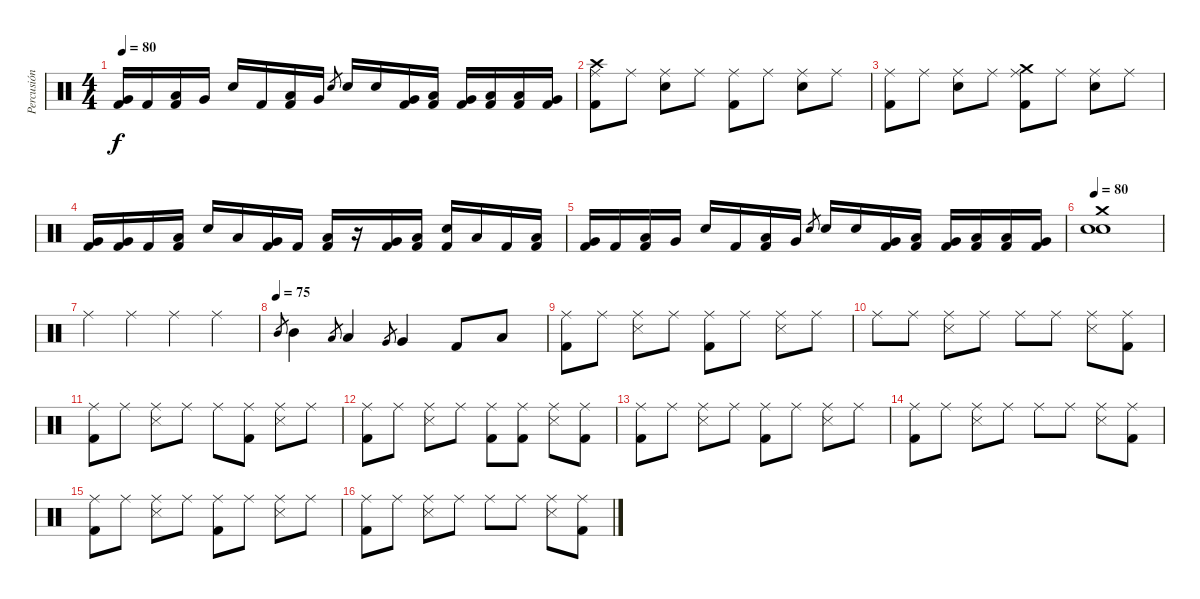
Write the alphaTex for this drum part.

\track ("Percusión" "Percusión") {instrument percussion}
\staff {score}
\articulation defaults
\ts (4 4)
\tempo 80
\clef neutral
\ks c
("Kick (hit) 2" "Very Low Tom (hit)").16{dy f} "Kick (hit) 2".16 ("Kick (hit) 2" "Low Floor Tom (hit)").16 "Very Low Tom (hit)".16 "Electric Snare (hit)".16 "Kick (hit) 2".16 ("Kick (hit) 2" "Low Floor Tom (hit)").16 "Very Low Tom (hit)".16 "Electric Snare (hit)".8{gr} "Electric Snare (hit)".16 "Electric Snare (hit)".16 ("Very Low Tom (hit)" "Kick (hit) 2").16 ("Low Floor Tom (hit)" "Kick (hit) 2").16 ("Very Low Tom (hit)" "Kick (hit) 2").16 ("Low Floor Tom (hit)" "Kick (hit) 2").16 ("Low Floor Tom (hit)" "Kick (hit) 2").16 ("Very Low Tom (hit)" "Kick (hit) 2").16 |
("Kick (hit) 2" "Crash high (hit)" "Ride (middle)").8 "Ride (middle)".8 ("Electric Snare (hit)" "Ride (middle)").8 "Ride (middle)".8 ("Kick (hit) 2" "Ride (middle)").8 "Ride (middle)".8 ("Electric Snare (hit)" "Ride (middle)").8 "Ride (middle)".8 |
("Kick (hit) 2" "Ride (middle)").8 "Ride (middle)".8 ("Electric Snare (hit)" "Ride (middle)").8 "Ride (middle)".8 ("Kick (hit) 2" "Crash medium (hit)" "Ride (middle)").8 "Ride (middle)".8 ("Electric Snare (hit)" "Ride (middle)").8 "Ride (middle)".8 |
("Kick (hit) 2" "Very Low Tom (hit)").16 ("Kick (hit) 2" "Very Low Tom (hit)").16 "Kick (hit) 2".16 ("Kick (hit) 2" "Low Floor Tom (hit)").16 "Electric Snare (hit)".16 "Low Floor Tom (hit)".16 ("Kick (hit) 2" "Very Low Tom (hit)").16 "Kick (hit) 2".16 ("Kick (hit) 2" "Low Floor Tom (hit)").16 r.16 ("Kick (hit) 2" "Very Low Tom (hit)").16 ("Kick (hit) 2" "Low Floor Tom (hit)").16 ("Kick (hit) 2" "Electric Snare (hit)").16 "Low Floor Tom (hit)".16 "Kick (hit) 2".16 ("Kick (hit) 2" "Low Floor Tom (hit)").16 |
("Kick (hit) 2" "Very Low Tom (hit)").16 "Kick (hit) 2".16 ("Kick (hit) 2" "Low Floor Tom (hit)").16 "Very Low Tom (hit)".16 "Electric Snare (hit)".16 "Kick (hit) 2".16 ("Kick (hit) 2" "Low Floor Tom (hit)").16 "Very Low Tom (hit)".16 "Electric Snare (hit)".8{gr} "Electric Snare (hit)".16 "Electric Snare (hit)".16 ("Very Low Tom (hit)" "Kick (hit) 2").16 ("Low Floor Tom (hit)" "Kick (hit) 2").16 ("Very Low Tom (hit)" "Kick (hit) 2").16 ("Low Floor Tom (hit)" "Kick (hit) 2").16 ("Low Floor Tom (hit)" "Kick (hit) 2").16 ("Very Low Tom (hit)" "Kick (hit) 2").16 |
\tempo 80
("Crash medium (hit)" "Electric Snare (hit)" "Snare (hit) 2").1 |
"Ride (middle)".4 "Ride (middle)".4 "Ride (middle)".4 "Ride (middle)".4 |
\tempo (75)
"Mid Tom (hit)".8{gr} "Mid Tom (hit)".4 "Low Tom (hit)".8{gr} "Low Tom (hit)".4 "Very Low Tom (hit)".8{gr} "Very Low Tom (hit)".4 "Kick (hit) 2".8 "Low Floor Tom (hit)".8 |
("Kick (hit) 2" "Ride (middle)").8{volume 11} "Ride (middle)".8 ("Ride (middle)" "Snare (side stick) 3").8 "Ride (middle)".8 ("Kick (hit) 2" "Ride (middle)").8 "Ride (middle)".8 ("Ride (middle)" "Snare (side stick) 3").8 "Ride (middle)".8 |
"Ride (middle)".8 "Ride (middle)".8 ("Ride (middle)" "Snare (side stick) 3").8 "Ride (middle)".8 "Ride (middle)".8 "Ride (middle)".8 ("Ride (middle)" "Snare (side stick) 3").8 ("Kick (hit) 2" "Ride (middle)").8 |
("Kick (hit) 2" "Ride (middle)").8 "Ride (middle)".8 ("Ride (middle)" "Snare (side stick) 3").8 "Ride (middle)".8 "Ride (middle)".8 ("Kick (hit) 2" "Ride (middle)").8 ("Ride (middle)" "Snare (side stick) 3").8 "Ride (middle)".8 |
("Kick (hit) 2" "Ride (middle)").8 "Ride (middle)".8 ("Ride (middle)" "Snare (side stick) 3").8 "Ride (middle)".8 ("Kick (hit) 2" "Ride (middle)").8 ("Kick (hit) 2" "Ride (middle)").8 ("Ride (middle)" "Snare (side stick) 3").8 ("Kick (hit) 2" "Ride (middle)").8 |
("Kick (hit) 2" "Ride (middle)").8 "Ride (middle)".8 ("Ride (middle)" "Snare (side stick) 3").8 "Ride (middle)".8 ("Kick (hit) 2" "Ride (middle)").8 "Ride (middle)".8 ("Ride (middle)" "Snare (side stick) 3").8 "Ride (middle)".8 |
("Kick (hit) 2" "Ride (middle)").8 "Ride (middle)".8 ("Ride (middle)" "Snare (side stick) 3").8 "Ride (middle)".8 "Ride (middle)".8 "Ride (middle)".8 ("Ride (middle)" "Snare (side stick) 3").8 ("Kick (hit) 2" "Ride (middle)").8 |
("Kick (hit) 2" "Ride (middle)").8 "Ride (middle)".8 ("Ride (middle)" "Snare (side stick) 3").8 "Ride (middle)".8 ("Kick (hit) 2" "Ride (middle)").8 "Ride (middle)".8 ("Ride (middle)" "Snare (side stick) 3").8 "Ride (middle)".8 |
("Kick (hit) 2" "Ride (middle)").8 "Ride (middle)".8 ("Ride (middle)" "Snare (side stick) 3").8 "Ride (middle)".8 "Ride (middle)".8 "Ride (middle)".8 ("Ride (middle)" "Snare (side stick) 3").8 ("Kick (hit) 2" "Ride (middle)").8
